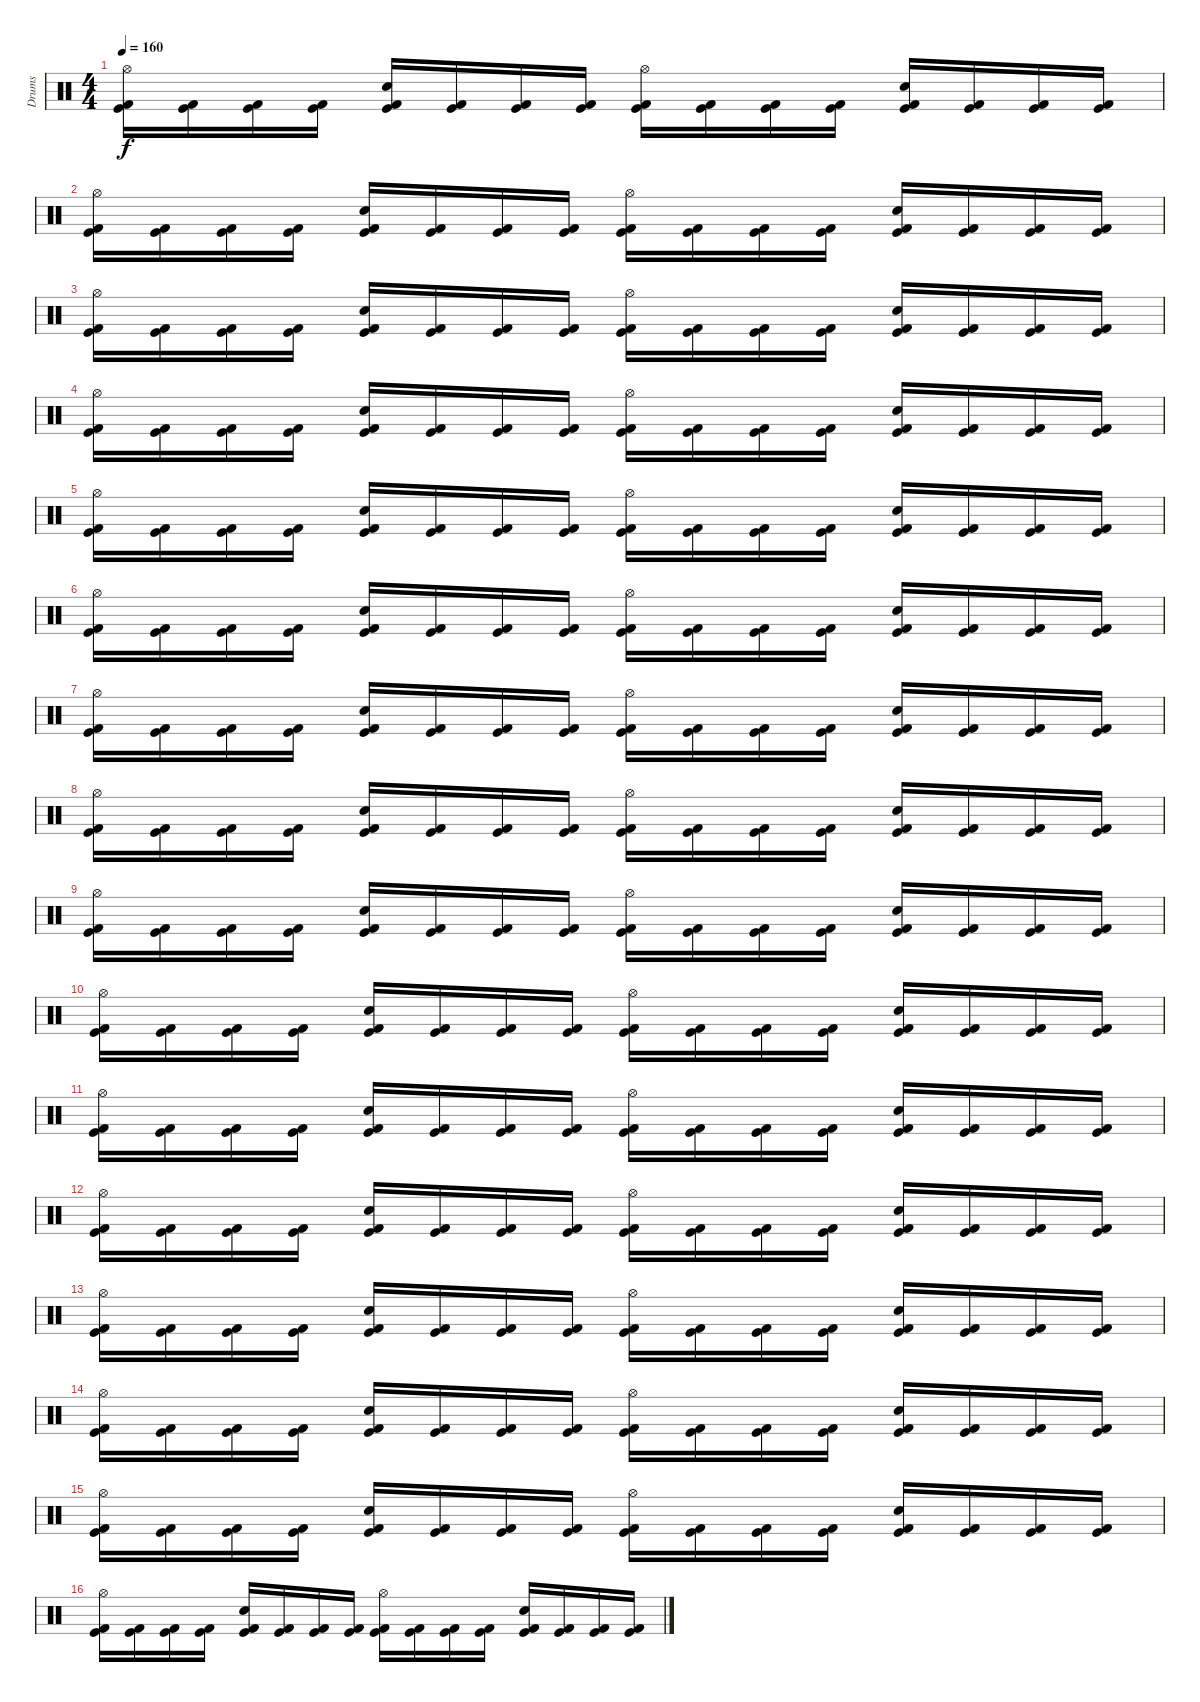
\track ("Drums" "Drums") {instrument percussion}
\staff {score}
\articulation defaults
\ts (4 4)
\tempo 160
\clef neutral
\ks c
("Hi-Hat (open)" "Kick (hit)" "Kick (hit) 2").16{dy f} ("Kick (hit)" "Kick (hit) 2").16 ("Kick (hit)" "Kick (hit) 2").16 ("Kick (hit)" "Kick (hit) 2").16 ("Snare (hit) 2" "Kick (hit)" "Kick (hit) 2").16 ("Kick (hit)" "Kick (hit) 2").16 ("Kick (hit)" "Kick (hit) 2").16 ("Kick (hit)" "Kick (hit) 2").16 ("Hi-Hat (open)" "Kick (hit)" "Kick (hit) 2").16 ("Kick (hit)" "Kick (hit) 2").16 ("Kick (hit)" "Kick (hit) 2").16 ("Kick (hit)" "Kick (hit) 2").16 ("Snare (hit) 2" "Kick (hit)" "Kick (hit) 2").16 ("Kick (hit)" "Kick (hit) 2").16 ("Kick (hit)" "Kick (hit) 2").16 ("Kick (hit)" "Kick (hit) 2").16 |
("Hi-Hat (open)" "Kick (hit)" "Kick (hit) 2").16 ("Kick (hit)" "Kick (hit) 2").16 ("Kick (hit)" "Kick (hit) 2").16 ("Kick (hit)" "Kick (hit) 2").16 ("Snare (hit) 2" "Kick (hit)" "Kick (hit) 2").16 ("Kick (hit)" "Kick (hit) 2").16 ("Kick (hit)" "Kick (hit) 2").16 ("Kick (hit)" "Kick (hit) 2").16 ("Hi-Hat (open)" "Kick (hit)" "Kick (hit) 2").16 ("Kick (hit)" "Kick (hit) 2").16 ("Kick (hit)" "Kick (hit) 2").16 ("Kick (hit)" "Kick (hit) 2").16 ("Snare (hit) 2" "Kick (hit)" "Kick (hit) 2").16 ("Kick (hit)" "Kick (hit) 2").16 ("Kick (hit)" "Kick (hit) 2").16 ("Kick (hit)" "Kick (hit) 2").16 |
("Hi-Hat (open)" "Kick (hit)" "Kick (hit) 2").16 ("Kick (hit)" "Kick (hit) 2").16 ("Kick (hit)" "Kick (hit) 2").16 ("Kick (hit)" "Kick (hit) 2").16 ("Snare (hit) 2" "Kick (hit)" "Kick (hit) 2").16 ("Kick (hit)" "Kick (hit) 2").16 ("Kick (hit)" "Kick (hit) 2").16 ("Kick (hit)" "Kick (hit) 2").16 ("Hi-Hat (open)" "Kick (hit)" "Kick (hit) 2").16 ("Kick (hit)" "Kick (hit) 2").16 ("Kick (hit)" "Kick (hit) 2").16 ("Kick (hit)" "Kick (hit) 2").16 ("Snare (hit) 2" "Kick (hit)" "Kick (hit) 2").16 ("Kick (hit)" "Kick (hit) 2").16 ("Kick (hit)" "Kick (hit) 2").16 ("Kick (hit)" "Kick (hit) 2").16 |
("Hi-Hat (open)" "Kick (hit)" "Kick (hit) 2").16 ("Kick (hit)" "Kick (hit) 2").16 ("Kick (hit)" "Kick (hit) 2").16 ("Kick (hit)" "Kick (hit) 2").16 ("Snare (hit) 2" "Kick (hit)" "Kick (hit) 2").16 ("Kick (hit)" "Kick (hit) 2").16 ("Kick (hit)" "Kick (hit) 2").16 ("Kick (hit)" "Kick (hit) 2").16 ("Hi-Hat (open)" "Kick (hit)" "Kick (hit) 2").16 ("Kick (hit)" "Kick (hit) 2").16 ("Kick (hit)" "Kick (hit) 2").16 ("Kick (hit)" "Kick (hit) 2").16 ("Snare (hit) 2" "Kick (hit)" "Kick (hit) 2").16 ("Kick (hit)" "Kick (hit) 2").16 ("Kick (hit)" "Kick (hit) 2").16 ("Kick (hit)" "Kick (hit) 2").16 |
("Hi-Hat (open)" "Kick (hit)" "Kick (hit) 2").16 ("Kick (hit)" "Kick (hit) 2").16 ("Kick (hit)" "Kick (hit) 2").16 ("Kick (hit)" "Kick (hit) 2").16 ("Snare (hit) 2" "Kick (hit)" "Kick (hit) 2").16 ("Kick (hit)" "Kick (hit) 2").16 ("Kick (hit)" "Kick (hit) 2").16 ("Kick (hit)" "Kick (hit) 2").16 ("Hi-Hat (open)" "Kick (hit)" "Kick (hit) 2").16 ("Kick (hit)" "Kick (hit) 2").16 ("Kick (hit)" "Kick (hit) 2").16 ("Kick (hit)" "Kick (hit) 2").16 ("Snare (hit) 2" "Kick (hit)" "Kick (hit) 2").16 ("Kick (hit)" "Kick (hit) 2").16 ("Kick (hit)" "Kick (hit) 2").16 ("Kick (hit)" "Kick (hit) 2").16 |
("Hi-Hat (open)" "Kick (hit)" "Kick (hit) 2").16 ("Kick (hit)" "Kick (hit) 2").16 ("Kick (hit)" "Kick (hit) 2").16 ("Kick (hit)" "Kick (hit) 2").16 ("Snare (hit) 2" "Kick (hit)" "Kick (hit) 2").16 ("Kick (hit)" "Kick (hit) 2").16 ("Kick (hit)" "Kick (hit) 2").16 ("Kick (hit)" "Kick (hit) 2").16 ("Hi-Hat (open)" "Kick (hit)" "Kick (hit) 2").16 ("Kick (hit)" "Kick (hit) 2").16 ("Kick (hit)" "Kick (hit) 2").16 ("Kick (hit)" "Kick (hit) 2").16 ("Snare (hit) 2" "Kick (hit)" "Kick (hit) 2").16 ("Kick (hit)" "Kick (hit) 2").16 ("Kick (hit)" "Kick (hit) 2").16 ("Kick (hit)" "Kick (hit) 2").16 |
("Hi-Hat (open)" "Kick (hit)" "Kick (hit) 2").16 ("Kick (hit)" "Kick (hit) 2").16 ("Kick (hit)" "Kick (hit) 2").16 ("Kick (hit)" "Kick (hit) 2").16 ("Snare (hit) 2" "Kick (hit)" "Kick (hit) 2").16 ("Kick (hit)" "Kick (hit) 2").16 ("Kick (hit)" "Kick (hit) 2").16 ("Kick (hit)" "Kick (hit) 2").16 ("Hi-Hat (open)" "Kick (hit)" "Kick (hit) 2").16 ("Kick (hit)" "Kick (hit) 2").16 ("Kick (hit)" "Kick (hit) 2").16 ("Kick (hit)" "Kick (hit) 2").16 ("Snare (hit) 2" "Kick (hit)" "Kick (hit) 2").16 ("Kick (hit)" "Kick (hit) 2").16 ("Kick (hit)" "Kick (hit) 2").16 ("Kick (hit)" "Kick (hit) 2").16 |
("Hi-Hat (open)" "Kick (hit)" "Kick (hit) 2").16 ("Kick (hit)" "Kick (hit) 2").16 ("Kick (hit)" "Kick (hit) 2").16 ("Kick (hit)" "Kick (hit) 2").16 ("Snare (hit) 2" "Kick (hit)" "Kick (hit) 2").16 ("Kick (hit)" "Kick (hit) 2").16 ("Kick (hit)" "Kick (hit) 2").16 ("Kick (hit)" "Kick (hit) 2").16 ("Hi-Hat (open)" "Kick (hit)" "Kick (hit) 2").16 ("Kick (hit)" "Kick (hit) 2").16 ("Kick (hit)" "Kick (hit) 2").16 ("Kick (hit)" "Kick (hit) 2").16 ("Snare (hit) 2" "Kick (hit)" "Kick (hit) 2").16 ("Kick (hit)" "Kick (hit) 2").16 ("Kick (hit)" "Kick (hit) 2").16 ("Kick (hit)" "Kick (hit) 2").16 |
("Hi-Hat (open)" "Kick (hit)" "Kick (hit) 2").16 ("Kick (hit)" "Kick (hit) 2").16 ("Kick (hit)" "Kick (hit) 2").16 ("Kick (hit)" "Kick (hit) 2").16 ("Snare (hit) 2" "Kick (hit)" "Kick (hit) 2").16 ("Kick (hit)" "Kick (hit) 2").16 ("Kick (hit)" "Kick (hit) 2").16 ("Kick (hit)" "Kick (hit) 2").16 ("Hi-Hat (open)" "Kick (hit)" "Kick (hit) 2").16 ("Kick (hit)" "Kick (hit) 2").16 ("Kick (hit)" "Kick (hit) 2").16 ("Kick (hit)" "Kick (hit) 2").16 ("Snare (hit) 2" "Kick (hit)" "Kick (hit) 2").16 ("Kick (hit)" "Kick (hit) 2").16 ("Kick (hit)" "Kick (hit) 2").16 ("Kick (hit)" "Kick (hit) 2").16 |
("Hi-Hat (open)" "Kick (hit)" "Kick (hit) 2").16 ("Kick (hit)" "Kick (hit) 2").16 ("Kick (hit)" "Kick (hit) 2").16 ("Kick (hit)" "Kick (hit) 2").16 ("Snare (hit) 2" "Kick (hit)" "Kick (hit) 2").16 ("Kick (hit)" "Kick (hit) 2").16 ("Kick (hit)" "Kick (hit) 2").16 ("Kick (hit)" "Kick (hit) 2").16 ("Hi-Hat (open)" "Kick (hit)" "Kick (hit) 2").16 ("Kick (hit)" "Kick (hit) 2").16 ("Kick (hit)" "Kick (hit) 2").16 ("Kick (hit)" "Kick (hit) 2").16 ("Snare (hit) 2" "Kick (hit)" "Kick (hit) 2").16 ("Kick (hit)" "Kick (hit) 2").16 ("Kick (hit)" "Kick (hit) 2").16 ("Kick (hit)" "Kick (hit) 2").16 |
("Hi-Hat (open)" "Kick (hit)" "Kick (hit) 2").16 ("Kick (hit)" "Kick (hit) 2").16 ("Kick (hit)" "Kick (hit) 2").16 ("Kick (hit)" "Kick (hit) 2").16 ("Snare (hit) 2" "Kick (hit)" "Kick (hit) 2").16 ("Kick (hit)" "Kick (hit) 2").16 ("Kick (hit)" "Kick (hit) 2").16 ("Kick (hit)" "Kick (hit) 2").16 ("Hi-Hat (open)" "Kick (hit)" "Kick (hit) 2").16 ("Kick (hit)" "Kick (hit) 2").16 ("Kick (hit)" "Kick (hit) 2").16 ("Kick (hit)" "Kick (hit) 2").16 ("Snare (hit) 2" "Kick (hit)" "Kick (hit) 2").16 ("Kick (hit)" "Kick (hit) 2").16 ("Kick (hit)" "Kick (hit) 2").16 ("Kick (hit)" "Kick (hit) 2").16 |
("Hi-Hat (open)" "Kick (hit)" "Kick (hit) 2").16 ("Kick (hit)" "Kick (hit) 2").16 ("Kick (hit)" "Kick (hit) 2").16 ("Kick (hit)" "Kick (hit) 2").16 ("Snare (hit) 2" "Kick (hit)" "Kick (hit) 2").16 ("Kick (hit)" "Kick (hit) 2").16 ("Kick (hit)" "Kick (hit) 2").16 ("Kick (hit)" "Kick (hit) 2").16 ("Hi-Hat (open)" "Kick (hit)" "Kick (hit) 2").16 ("Kick (hit)" "Kick (hit) 2").16 ("Kick (hit)" "Kick (hit) 2").16 ("Kick (hit)" "Kick (hit) 2").16 ("Snare (hit) 2" "Kick (hit)" "Kick (hit) 2").16 ("Kick (hit)" "Kick (hit) 2").16 ("Kick (hit)" "Kick (hit) 2").16 ("Kick (hit)" "Kick (hit) 2").16 |
("Hi-Hat (open)" "Kick (hit)" "Kick (hit) 2").16 ("Kick (hit)" "Kick (hit) 2").16 ("Kick (hit)" "Kick (hit) 2").16 ("Kick (hit)" "Kick (hit) 2").16 ("Snare (hit) 2" "Kick (hit)" "Kick (hit) 2").16 ("Kick (hit)" "Kick (hit) 2").16 ("Kick (hit)" "Kick (hit) 2").16 ("Kick (hit)" "Kick (hit) 2").16 ("Hi-Hat (open)" "Kick (hit)" "Kick (hit) 2").16 ("Kick (hit)" "Kick (hit) 2").16 ("Kick (hit)" "Kick (hit) 2").16 ("Kick (hit)" "Kick (hit) 2").16 ("Snare (hit) 2" "Kick (hit)" "Kick (hit) 2").16 ("Kick (hit)" "Kick (hit) 2").16 ("Kick (hit)" "Kick (hit) 2").16 ("Kick (hit)" "Kick (hit) 2").16 |
("Hi-Hat (open)" "Kick (hit)" "Kick (hit) 2").16 ("Kick (hit)" "Kick (hit) 2").16 ("Kick (hit)" "Kick (hit) 2").16 ("Kick (hit)" "Kick (hit) 2").16 ("Snare (hit) 2" "Kick (hit)" "Kick (hit) 2").16 ("Kick (hit)" "Kick (hit) 2").16 ("Kick (hit)" "Kick (hit) 2").16 ("Kick (hit)" "Kick (hit) 2").16 ("Hi-Hat (open)" "Kick (hit)" "Kick (hit) 2").16 ("Kick (hit)" "Kick (hit) 2").16 ("Kick (hit)" "Kick (hit) 2").16 ("Kick (hit)" "Kick (hit) 2").16 ("Snare (hit) 2" "Kick (hit)" "Kick (hit) 2").16 ("Kick (hit)" "Kick (hit) 2").16 ("Kick (hit)" "Kick (hit) 2").16 ("Kick (hit)" "Kick (hit) 2").16 |
("Hi-Hat (open)" "Kick (hit)" "Kick (hit) 2").16 ("Kick (hit)" "Kick (hit) 2").16 ("Kick (hit)" "Kick (hit) 2").16 ("Kick (hit)" "Kick (hit) 2").16 ("Snare (hit) 2" "Kick (hit)" "Kick (hit) 2").16 ("Kick (hit)" "Kick (hit) 2").16 ("Kick (hit)" "Kick (hit) 2").16 ("Kick (hit)" "Kick (hit) 2").16 ("Hi-Hat (open)" "Kick (hit)" "Kick (hit) 2").16 ("Kick (hit)" "Kick (hit) 2").16 ("Kick (hit)" "Kick (hit) 2").16 ("Kick (hit)" "Kick (hit) 2").16 ("Snare (hit) 2" "Kick (hit)" "Kick (hit) 2").16 ("Kick (hit)" "Kick (hit) 2").16 ("Kick (hit)" "Kick (hit) 2").16 ("Kick (hit)" "Kick (hit) 2").16 |
("Hi-Hat (open)" "Kick (hit)" "Kick (hit) 2").16 ("Kick (hit)" "Kick (hit) 2").16 ("Kick (hit)" "Kick (hit) 2").16 ("Kick (hit)" "Kick (hit) 2").16 ("Snare (hit) 2" "Kick (hit)" "Kick (hit) 2").16 ("Kick (hit)" "Kick (hit) 2").16 ("Kick (hit)" "Kick (hit) 2").16 ("Kick (hit)" "Kick (hit) 2").16 ("Hi-Hat (open)" "Kick (hit)" "Kick (hit) 2").16 ("Kick (hit)" "Kick (hit) 2").16 ("Kick (hit)" "Kick (hit) 2").16 ("Kick (hit)" "Kick (hit) 2").16 ("Snare (hit) 2" "Kick (hit)" "Kick (hit) 2").16 ("Kick (hit)" "Kick (hit) 2").16 ("Kick (hit)" "Kick (hit) 2").16 ("Kick (hit)" "Kick (hit) 2").16
